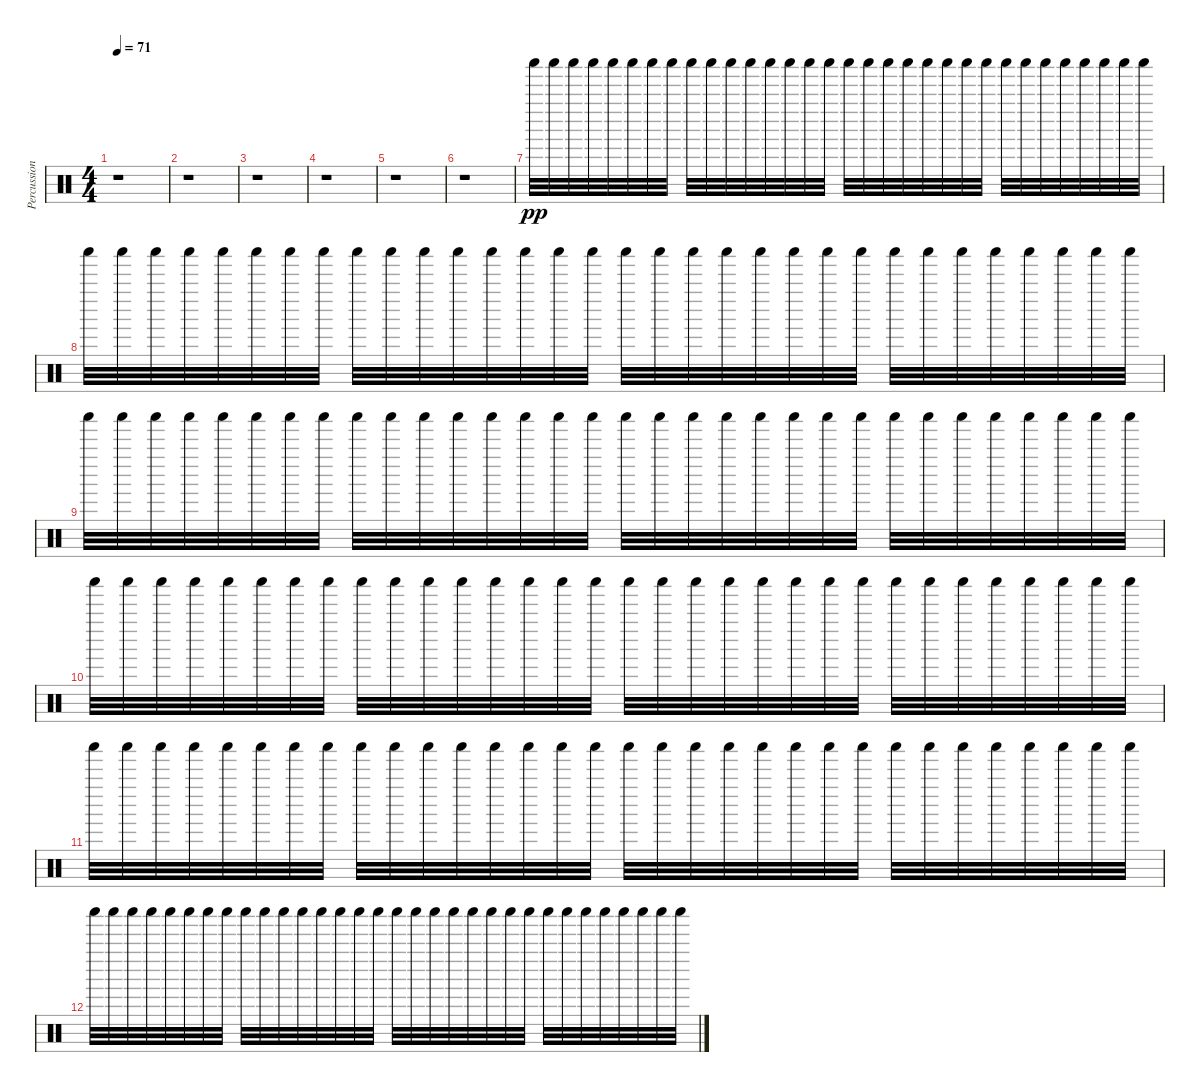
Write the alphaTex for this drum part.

\track ("Percussion" "Percussion") {instrument percussion}
\staff {score}
\articulation defaults
\ts (4 4)
\tempo 71
\clef neutral
\ks c
r.1{dy pp} |
r.1 |
r.1 |
r.1 |
r.1 |
r.1 |
"Shaker (hit)".32 "Shaker (hit)".32 "Shaker (hit)".32 "Shaker (hit)".32 "Shaker (hit)".32 "Shaker (hit)".32 "Shaker (hit)".32 "Shaker (hit)".32 "Shaker (hit)".32 "Shaker (hit)".32 "Shaker (hit)".32 "Shaker (hit)".32 "Shaker (hit)".32 "Shaker (hit)".32 "Shaker (hit)".32 "Shaker (hit)".32 "Shaker (hit)".32 "Shaker (hit)".32 "Shaker (hit)".32 "Shaker (hit)".32 "Shaker (hit)".32 "Shaker (hit)".32 "Shaker (hit)".32 "Shaker (hit)".32 "Shaker (hit)".32 "Shaker (hit)".32 "Shaker (hit)".32 "Shaker (hit)".32 "Shaker (hit)".32 "Shaker (hit)".32 "Shaker (hit)".32 "Shaker (hit)".32 |
"Shaker (hit)".32 "Shaker (hit)".32 "Shaker (hit)".32 "Shaker (hit)".32 "Shaker (hit)".32 "Shaker (hit)".32 "Shaker (hit)".32 "Shaker (hit)".32 "Shaker (hit)".32 "Shaker (hit)".32 "Shaker (hit)".32 "Shaker (hit)".32 "Shaker (hit)".32 "Shaker (hit)".32 "Shaker (hit)".32 "Shaker (hit)".32 "Shaker (hit)".32 "Shaker (hit)".32 "Shaker (hit)".32 "Shaker (hit)".32 "Shaker (hit)".32 "Shaker (hit)".32 "Shaker (hit)".32 "Shaker (hit)".32 "Shaker (hit)".32 "Shaker (hit)".32 "Shaker (hit)".32 "Shaker (hit)".32 "Shaker (hit)".32 "Shaker (hit)".32 "Shaker (hit)".32 "Shaker (hit)".32 |
"Shaker (hit)".32{volume 0} "Shaker (hit)".32 "Shaker (hit)".32 "Shaker (hit)".32 "Shaker (hit)".32 "Shaker (hit)".32 "Shaker (hit)".32 "Shaker (hit)".32 "Shaker (hit)".32 "Shaker (hit)".32 "Shaker (hit)".32 "Shaker (hit)".32 "Shaker (hit)".32 "Shaker (hit)".32 "Shaker (hit)".32 "Shaker (hit)".32 "Shaker (hit)".32 "Shaker (hit)".32 "Shaker (hit)".32 "Shaker (hit)".32 "Shaker (hit)".32 "Shaker (hit)".32 "Shaker (hit)".32 "Shaker (hit)".32 "Shaker (hit)".32 "Shaker (hit)".32 "Shaker (hit)".32 "Shaker (hit)".32 "Shaker (hit)".32 "Shaker (hit)".32 "Shaker (hit)".32 "Shaker (hit)".32 |
"Shaker (hit)".32 "Shaker (hit)".32 "Shaker (hit)".32 "Shaker (hit)".32 "Shaker (hit)".32 "Shaker (hit)".32 "Shaker (hit)".32 "Shaker (hit)".32 "Shaker (hit)".32 "Shaker (hit)".32 "Shaker (hit)".32 "Shaker (hit)".32 "Shaker (hit)".32 "Shaker (hit)".32 "Shaker (hit)".32 "Shaker (hit)".32 "Shaker (hit)".32 "Shaker (hit)".32 "Shaker (hit)".32 "Shaker (hit)".32 "Shaker (hit)".32 "Shaker (hit)".32 "Shaker (hit)".32 "Shaker (hit)".32 "Shaker (hit)".32 "Shaker (hit)".32 "Shaker (hit)".32 "Shaker (hit)".32 "Shaker (hit)".32 "Shaker (hit)".32 "Shaker (hit)".32 "Shaker (hit)".32 |
"Shaker (hit)".32 "Shaker (hit)".32 "Shaker (hit)".32 "Shaker (hit)".32 "Shaker (hit)".32 "Shaker (hit)".32 "Shaker (hit)".32 "Shaker (hit)".32 "Shaker (hit)".32 "Shaker (hit)".32 "Shaker (hit)".32 "Shaker (hit)".32 "Shaker (hit)".32 "Shaker (hit)".32 "Shaker (hit)".32 "Shaker (hit)".32 "Shaker (hit)".32 "Shaker (hit)".32 "Shaker (hit)".32 "Shaker (hit)".32 "Shaker (hit)".32 "Shaker (hit)".32 "Shaker (hit)".32 "Shaker (hit)".32 "Shaker (hit)".32 "Shaker (hit)".32 "Shaker (hit)".32 "Shaker (hit)".32 "Shaker (hit)".32 "Shaker (hit)".32 "Shaker (hit)".32 "Shaker (hit)".32 |
"Shaker (hit)".32 "Shaker (hit)".32 "Shaker (hit)".32 "Shaker (hit)".32 "Shaker (hit)".32 "Shaker (hit)".32 "Shaker (hit)".32 "Shaker (hit)".32 "Shaker (hit)".32 "Shaker (hit)".32 "Shaker (hit)".32 "Shaker (hit)".32 "Shaker (hit)".32 "Shaker (hit)".32 "Shaker (hit)".32 "Shaker (hit)".32 "Shaker (hit)".32 "Shaker (hit)".32 "Shaker (hit)".32 "Shaker (hit)".32 "Shaker (hit)".32 "Shaker (hit)".32 "Shaker (hit)".32 "Shaker (hit)".32 "Shaker (hit)".32 "Shaker (hit)".32 "Shaker (hit)".32 "Shaker (hit)".32 "Shaker (hit)".32 "Shaker (hit)".32 "Shaker (hit)".32 "Shaker (hit)".32
